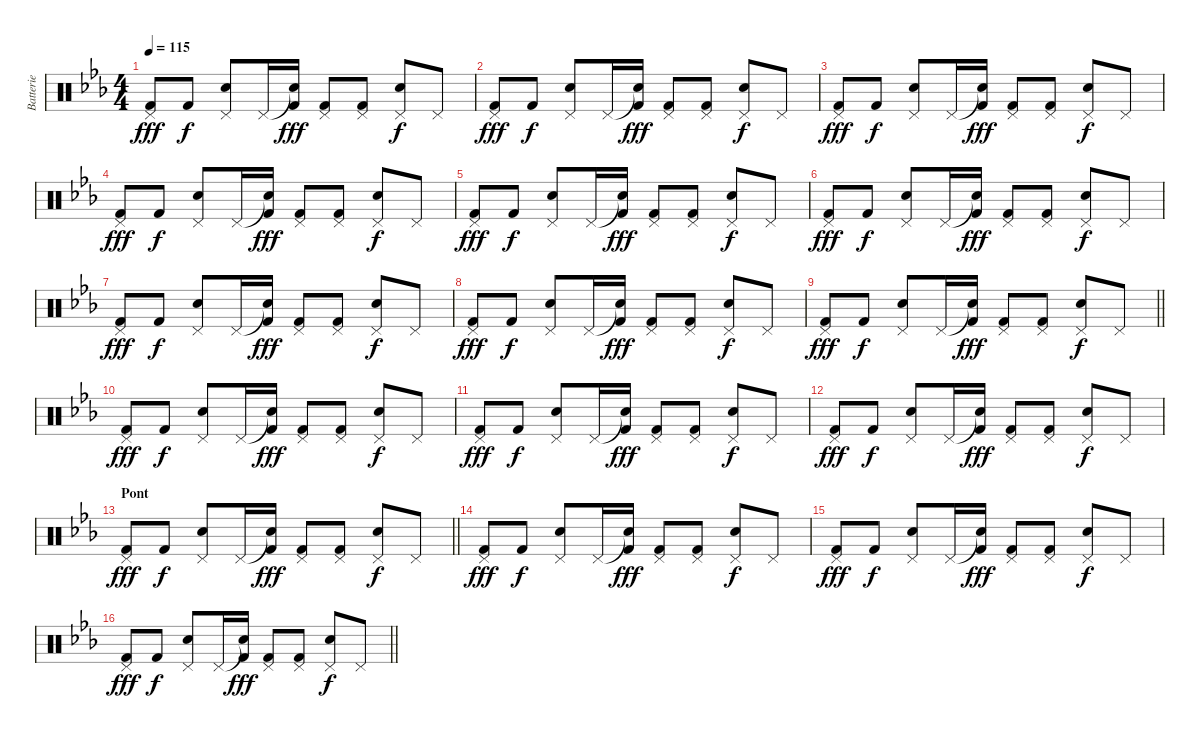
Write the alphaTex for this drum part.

\track ("Batterie" "Batterie") {instrument percussion}
\staff {score}
\articulation defaults
\ts (4 4)
\tempo 115
\clef neutral
\ks eb
("Pedal Hi-Hat (hit)" "Kick (hit) 2").8{dy fff} "Kick (hit) 2".8{dy f} ("Pedal Hi-Hat (hit)" "Snare (hit) 2").8 "Pedal Hi-Hat (hit)".16 ("Snare (hit)"{t} "Kick (hit) 2").16{dy fff} ("Pedal Hi-Hat (hit)" "Kick (hit) 2").8 ("Pedal Hi-Hat (hit)" "Kick (hit) 2").8 ("Pedal Hi-Hat (hit)" "Snare (hit) 2").8{dy f} "Pedal Hi-Hat (hit)".8 |
("Pedal Hi-Hat (hit)" "Kick (hit) 2").8{dy fff} "Kick (hit) 2".8{dy f} ("Pedal Hi-Hat (hit)" "Snare (hit) 2").8 "Pedal Hi-Hat (hit)".16 ("Snare (hit)"{t} "Kick (hit) 2").16{dy fff} ("Pedal Hi-Hat (hit)" "Kick (hit) 2").8 ("Pedal Hi-Hat (hit)" "Kick (hit) 2").8 ("Pedal Hi-Hat (hit)" "Snare (hit) 2").8{dy f} "Pedal Hi-Hat (hit)".8 |
("Pedal Hi-Hat (hit)" "Kick (hit) 2").8{dy fff} "Kick (hit) 2".8{dy f} ("Pedal Hi-Hat (hit)" "Snare (hit) 2").8 "Pedal Hi-Hat (hit)".16 ("Snare (hit)"{t} "Kick (hit) 2").16{dy fff} ("Pedal Hi-Hat (hit)" "Kick (hit) 2").8 ("Pedal Hi-Hat (hit)" "Kick (hit) 2").8 ("Pedal Hi-Hat (hit)" "Snare (hit) 2").8{dy f} "Pedal Hi-Hat (hit)".8 |
("Pedal Hi-Hat (hit)" "Kick (hit) 2").8{dy fff} "Kick (hit) 2".8{dy f} ("Pedal Hi-Hat (hit)" "Snare (hit) 2").8 "Pedal Hi-Hat (hit)".16 ("Snare (hit)"{t} "Kick (hit) 2").16{dy fff} ("Pedal Hi-Hat (hit)" "Kick (hit) 2").8 ("Pedal Hi-Hat (hit)" "Kick (hit) 2").8 ("Pedal Hi-Hat (hit)" "Snare (hit) 2").8{dy f} "Pedal Hi-Hat (hit)".8 |
("Pedal Hi-Hat (hit)" "Kick (hit) 2").8{dy fff} "Kick (hit) 2".8{dy f} ("Pedal Hi-Hat (hit)" "Snare (hit) 2").8 "Pedal Hi-Hat (hit)".16 ("Snare (hit)"{t} "Kick (hit) 2").16{dy fff} ("Pedal Hi-Hat (hit)" "Kick (hit) 2").8 ("Pedal Hi-Hat (hit)" "Kick (hit) 2").8 ("Pedal Hi-Hat (hit)" "Snare (hit) 2").8{dy f} "Pedal Hi-Hat (hit)".8 |
("Pedal Hi-Hat (hit)" "Kick (hit) 2").8{dy fff} "Kick (hit) 2".8{dy f} ("Pedal Hi-Hat (hit)" "Snare (hit) 2").8 "Pedal Hi-Hat (hit)".16 ("Snare (hit)"{t} "Kick (hit) 2").16{dy fff} ("Pedal Hi-Hat (hit)" "Kick (hit) 2").8 ("Pedal Hi-Hat (hit)" "Kick (hit) 2").8 ("Pedal Hi-Hat (hit)" "Snare (hit) 2").8{dy f} "Pedal Hi-Hat (hit)".8 |
("Pedal Hi-Hat (hit)" "Kick (hit) 2").8{dy fff} "Kick (hit) 2".8{dy f} ("Pedal Hi-Hat (hit)" "Snare (hit) 2").8 "Pedal Hi-Hat (hit)".16 ("Snare (hit)"{t} "Kick (hit) 2").16{dy fff} ("Pedal Hi-Hat (hit)" "Kick (hit) 2").8 ("Pedal Hi-Hat (hit)" "Kick (hit) 2").8 ("Pedal Hi-Hat (hit)" "Snare (hit) 2").8{dy f} "Pedal Hi-Hat (hit)".8 |
("Pedal Hi-Hat (hit)" "Kick (hit) 2").8{dy fff} "Kick (hit) 2".8{dy f} ("Pedal Hi-Hat (hit)" "Snare (hit) 2").8 "Pedal Hi-Hat (hit)".16 ("Snare (hit)"{t} "Kick (hit) 2").16{dy fff} ("Pedal Hi-Hat (hit)" "Kick (hit) 2").8 ("Pedal Hi-Hat (hit)" "Kick (hit) 2").8 ("Pedal Hi-Hat (hit)" "Snare (hit) 2").8{dy f} "Pedal Hi-Hat (hit)".8 |
\barLineRight lightlight
("Pedal Hi-Hat (hit)" "Kick (hit) 2").8{dy fff} "Kick (hit) 2".8{dy f} ("Pedal Hi-Hat (hit)" "Snare (hit) 2").8 "Pedal Hi-Hat (hit)".16 ("Snare (hit)"{t} "Kick (hit) 2").16{dy fff} ("Pedal Hi-Hat (hit)" "Kick (hit) 2").8 ("Pedal Hi-Hat (hit)" "Kick (hit) 2").8 ("Pedal Hi-Hat (hit)" "Snare (hit) 2").8{dy f} "Pedal Hi-Hat (hit)".8 |
("Pedal Hi-Hat (hit)" "Kick (hit) 2").8{dy fff} "Kick (hit) 2".8{dy f} ("Pedal Hi-Hat (hit)" "Snare (hit) 2").8 "Pedal Hi-Hat (hit)".16 ("Snare (hit)"{t} "Kick (hit) 2").16{dy fff} ("Pedal Hi-Hat (hit)" "Kick (hit) 2").8 ("Pedal Hi-Hat (hit)" "Kick (hit) 2").8 ("Pedal Hi-Hat (hit)" "Snare (hit) 2").8{dy f} "Pedal Hi-Hat (hit)".8 |
("Pedal Hi-Hat (hit)" "Kick (hit) 2").8{dy fff} "Kick (hit) 2".8{dy f} ("Pedal Hi-Hat (hit)" "Snare (hit) 2").8 "Pedal Hi-Hat (hit)".16 ("Snare (hit)"{t} "Kick (hit) 2").16{dy fff} ("Pedal Hi-Hat (hit)" "Kick (hit) 2").8 ("Pedal Hi-Hat (hit)" "Kick (hit) 2").8 ("Pedal Hi-Hat (hit)" "Snare (hit) 2").8{dy f} "Pedal Hi-Hat (hit)".8 |
("Pedal Hi-Hat (hit)" "Kick (hit) 2").8{dy fff} "Kick (hit) 2".8{dy f} ("Pedal Hi-Hat (hit)" "Snare (hit) 2").8 "Pedal Hi-Hat (hit)".16 ("Snare (hit)"{t} "Kick (hit) 2").16{dy fff} ("Pedal Hi-Hat (hit)" "Kick (hit) 2").8 ("Pedal Hi-Hat (hit)" "Kick (hit) 2").8 ("Pedal Hi-Hat (hit)" "Snare (hit) 2").8{dy f} "Pedal Hi-Hat (hit)".8 |
\section ("" "Pont")
\barLineRight lightlight
("Pedal Hi-Hat (hit)" "Kick (hit) 2").8{dy fff} "Kick (hit) 2".8{dy f} ("Pedal Hi-Hat (hit)" "Snare (hit) 2").8 "Pedal Hi-Hat (hit)".16 ("Snare (hit)"{t} "Kick (hit) 2").16{dy fff} ("Pedal Hi-Hat (hit)" "Kick (hit) 2").8 ("Pedal Hi-Hat (hit)" "Kick (hit) 2").8 ("Pedal Hi-Hat (hit)" "Snare (hit) 2").8{dy f} "Pedal Hi-Hat (hit)".8 |
("Pedal Hi-Hat (hit)" "Kick (hit) 2").8{dy fff} "Kick (hit) 2".8{dy f} ("Pedal Hi-Hat (hit)" "Snare (hit) 2").8 "Pedal Hi-Hat (hit)".16 ("Snare (hit)"{t} "Kick (hit) 2").16{dy fff} ("Pedal Hi-Hat (hit)" "Kick (hit) 2").8 ("Pedal Hi-Hat (hit)" "Kick (hit) 2").8 ("Pedal Hi-Hat (hit)" "Snare (hit) 2").8{dy f} "Pedal Hi-Hat (hit)".8 |
("Pedal Hi-Hat (hit)" "Kick (hit) 2").8{dy fff} "Kick (hit) 2".8{dy f} ("Pedal Hi-Hat (hit)" "Snare (hit) 2").8 "Pedal Hi-Hat (hit)".16 ("Snare (hit)"{t} "Kick (hit) 2").16{dy fff} ("Pedal Hi-Hat (hit)" "Kick (hit) 2").8 ("Pedal Hi-Hat (hit)" "Kick (hit) 2").8 ("Pedal Hi-Hat (hit)" "Snare (hit) 2").8{dy f} "Pedal Hi-Hat (hit)".8 |
\barLineRight lightlight
("Pedal Hi-Hat (hit)" "Kick (hit) 2").8{dy fff} "Kick (hit) 2".8{dy f} ("Pedal Hi-Hat (hit)" "Snare (hit) 2").8 "Pedal Hi-Hat (hit)".16 ("Snare (hit)"{t} "Kick (hit) 2").16{dy fff} ("Pedal Hi-Hat (hit)" "Kick (hit) 2").8 ("Pedal Hi-Hat (hit)" "Kick (hit) 2").8 ("Pedal Hi-Hat (hit)" "Snare (hit) 2").8{dy f} "Pedal Hi-Hat (hit)".8
